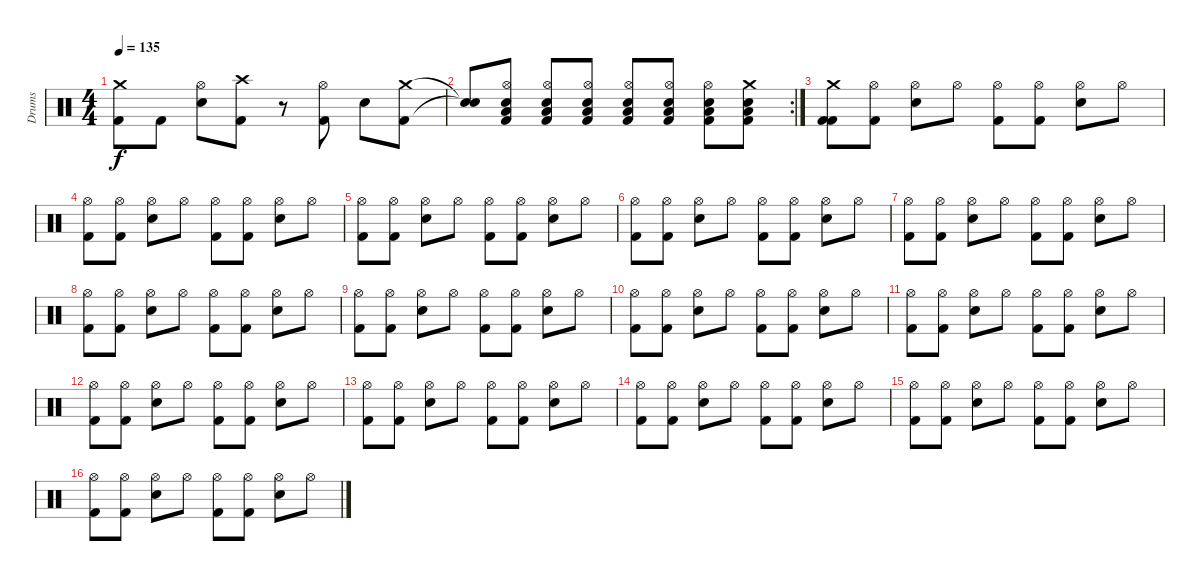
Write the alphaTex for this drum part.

\track ("Drums" "Drums") {instrument percussion}
\staff {score}
\articulation defaults
\ts (4 4)
\tempo 135
\clef neutral
\ks c
("Crash medium (hit)" "Kick (hit) 2").8{dy f} "Kick (hit) 2".8 ("Hi-Hat (open)" "Electric Snare (hit)").8 ("Crash high (hit)" "Kick (hit) 2").8 r.8 ("Hi-Hat (open)" "Kick (hit) 2").8 "Electric Snare (hit)".8 ("Crash medium (hit)" "Kick (hit) 2").8 |
\rc 2
("Snare (hit)"{t} "Snare (hit)"{t}).8 ("Hi-Hat (open)" "Low Floor Tom (hit)" "Electric Snare (hit)" "Kick (hit) 2").8 ("Hi-Hat (open)" "Low Floor Tom (hit)" "Electric Snare (hit)" "Kick (hit) 2").8 ("Hi-Hat (open)" "Low Floor Tom (hit)" "Electric Snare (hit)" "Kick (hit) 2").8 ("Hi-Hat (open)" "Low Floor Tom (hit)" "Electric Snare (hit)" "Kick (hit) 2").8 ("Hi-Hat (open)" "Low Floor Tom (hit)" "Electric Snare (hit)" "Kick (hit) 2").8 ("Hi-Hat (open)" "Low Floor Tom (hit)" "Electric Snare (hit)" "Kick (hit) 2").8 ("Crash medium (hit)" "Low Floor Tom (hit)" "Electric Snare (hit)" "Kick (hit) 2").8 |
("Crash medium (hit)" "Kick (hit) 2" "Kick (hit) 2").8 ("Hi-Hat (open)" "Kick (hit) 2").8 ("Hi-Hat (open)" "Electric Snare (hit)").8 "Hi-Hat (open)".8 ("Hi-Hat (open)" "Kick (hit) 2").8 ("Hi-Hat (open)" "Kick (hit) 2").8 ("Hi-Hat (open)" "Electric Snare (hit)").8 "Hi-Hat (open)".8 |
("Hi-Hat (open)" "Kick (hit) 2").8 ("Hi-Hat (open)" "Kick (hit) 2").8 ("Hi-Hat (open)" "Electric Snare (hit)").8 "Hi-Hat (open)".8 ("Hi-Hat (open)" "Kick (hit) 2").8 ("Hi-Hat (open)" "Kick (hit) 2").8 ("Hi-Hat (open)" "Electric Snare (hit)").8 "Hi-Hat (open)".8 |
("Hi-Hat (open)" "Kick (hit) 2").8 ("Hi-Hat (open)" "Kick (hit) 2").8 ("Hi-Hat (open)" "Electric Snare (hit)").8 "Hi-Hat (open)".8 ("Hi-Hat (open)" "Kick (hit) 2").8 ("Hi-Hat (open)" "Kick (hit) 2").8 ("Hi-Hat (open)" "Electric Snare (hit)").8 "Hi-Hat (open)".8 |
("Hi-Hat (open)" "Kick (hit) 2").8 ("Hi-Hat (open)" "Kick (hit) 2").8 ("Hi-Hat (open)" "Electric Snare (hit)").8 "Hi-Hat (open)".8 ("Hi-Hat (open)" "Kick (hit) 2").8 ("Hi-Hat (open)" "Kick (hit) 2").8 ("Hi-Hat (open)" "Electric Snare (hit)").8 "Hi-Hat (open)".8 |
("Hi-Hat (open)" "Kick (hit) 2").8 ("Hi-Hat (open)" "Kick (hit) 2").8 ("Hi-Hat (open)" "Electric Snare (hit)").8 "Hi-Hat (open)".8 ("Hi-Hat (open)" "Kick (hit) 2").8 ("Hi-Hat (open)" "Kick (hit) 2").8 ("Hi-Hat (open)" "Electric Snare (hit)").8 "Hi-Hat (open)".8 |
("Hi-Hat (open)" "Kick (hit) 2").8 ("Hi-Hat (open)" "Kick (hit) 2").8 ("Hi-Hat (open)" "Electric Snare (hit)").8 "Hi-Hat (open)".8 ("Hi-Hat (open)" "Kick (hit) 2").8 ("Hi-Hat (open)" "Kick (hit) 2").8 ("Hi-Hat (open)" "Electric Snare (hit)").8 "Hi-Hat (open)".8 |
("Hi-Hat (open)" "Kick (hit) 2").8 ("Hi-Hat (open)" "Kick (hit) 2").8 ("Hi-Hat (open)" "Electric Snare (hit)").8 "Hi-Hat (open)".8 ("Hi-Hat (open)" "Kick (hit) 2").8 ("Hi-Hat (open)" "Kick (hit) 2").8 ("Hi-Hat (open)" "Electric Snare (hit)").8 "Hi-Hat (open)".8 |
("Hi-Hat (open)" "Kick (hit) 2").8 ("Hi-Hat (open)" "Kick (hit) 2").8 ("Hi-Hat (open)" "Electric Snare (hit)").8 "Hi-Hat (open)".8 ("Hi-Hat (open)" "Kick (hit) 2").8 ("Hi-Hat (open)" "Kick (hit) 2").8 ("Hi-Hat (open)" "Electric Snare (hit)").8 "Hi-Hat (open)".8 |
("Hi-Hat (open)" "Kick (hit) 2").8 ("Hi-Hat (open)" "Kick (hit) 2").8 ("Hi-Hat (open)" "Electric Snare (hit)").8 "Hi-Hat (open)".8 ("Hi-Hat (open)" "Kick (hit) 2").8 ("Hi-Hat (open)" "Kick (hit) 2").8 ("Hi-Hat (open)" "Electric Snare (hit)").8 "Hi-Hat (open)".8 |
("Hi-Hat (open)" "Kick (hit) 2").8 ("Hi-Hat (open)" "Kick (hit) 2").8 ("Hi-Hat (open)" "Electric Snare (hit)").8 "Hi-Hat (open)".8 ("Hi-Hat (open)" "Kick (hit) 2").8 ("Hi-Hat (open)" "Kick (hit) 2").8 ("Hi-Hat (open)" "Electric Snare (hit)").8 "Hi-Hat (open)".8 |
("Hi-Hat (open)" "Kick (hit) 2").8 ("Hi-Hat (open)" "Kick (hit) 2").8 ("Hi-Hat (open)" "Electric Snare (hit)").8 "Hi-Hat (open)".8 ("Hi-Hat (open)" "Kick (hit) 2").8 ("Hi-Hat (open)" "Kick (hit) 2").8 ("Hi-Hat (open)" "Electric Snare (hit)").8 "Hi-Hat (open)".8 |
("Hi-Hat (open)" "Kick (hit) 2").8 ("Hi-Hat (open)" "Kick (hit) 2").8 ("Hi-Hat (open)" "Electric Snare (hit)").8 "Hi-Hat (open)".8 ("Hi-Hat (open)" "Kick (hit) 2").8 ("Hi-Hat (open)" "Kick (hit) 2").8 ("Hi-Hat (open)" "Electric Snare (hit)").8 "Hi-Hat (open)".8 |
("Hi-Hat (open)" "Kick (hit) 2").8 ("Hi-Hat (open)" "Kick (hit) 2").8 ("Hi-Hat (open)" "Electric Snare (hit)").8 "Hi-Hat (open)".8 ("Hi-Hat (open)" "Kick (hit) 2").8 ("Hi-Hat (open)" "Kick (hit) 2").8 ("Hi-Hat (open)" "Electric Snare (hit)").8 "Hi-Hat (open)".8 |
("Hi-Hat (open)" "Kick (hit) 2").8 ("Hi-Hat (open)" "Kick (hit) 2").8 ("Hi-Hat (open)" "Electric Snare (hit)").8 "Hi-Hat (open)".8 ("Hi-Hat (open)" "Kick (hit) 2").8 ("Hi-Hat (open)" "Kick (hit) 2").8 ("Hi-Hat (open)" "Electric Snare (hit)").8 "Hi-Hat (open)".8
